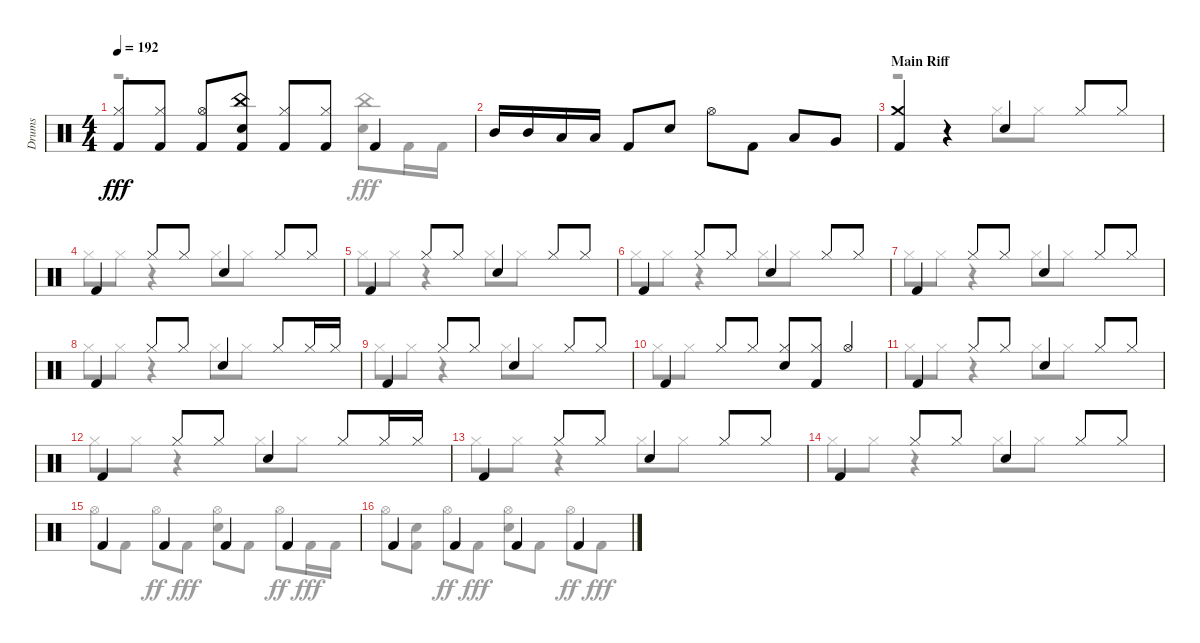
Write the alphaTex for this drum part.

\track ("Drums" "Drums") {instrument percussion}
\staff {score}
\articulation defaults
\voice
\ts (4 4)
\tempo 192
\clef neutral
\ks aminor
("Hi-Hat (closed)" "Kick (hit) 2").8{dy fff} ("Hi-Hat (closed)" "Kick (hit) 2").8 ("Kick (hit) 2" "Hi-Hat (open)").8 ("Snare (hit) 2" "China (hit)" "Kick (hit) 2").8 ("Hi-Hat (closed)" "Kick (hit) 2").8 ("Hi-Hat (closed)" "Kick (hit) 2").8 "Kick (hit) 2".4 |
"Mid Tom (hit)".16 "Mid Tom (hit)".16 "Low Tom (hit)".16 "Low Tom (hit)".16 "Kick (hit) 2".8 "Snare (hit) 2".8 "Hi-Hat (open)".8 "Kick (hit) 2".8 "Low Tom (hit)".8 "Very Low Tom (hit)".8 |
\section ("" "Main Riff")
("Crash medium (hit)" "Kick (hit) 2").4 r.4 "Snare (hit) 2".4 "Hi-Hat (closed)".8 "Hi-Hat (closed)".8 |
"Kick (hit) 2".4 "Hi-Hat (closed)".8 "Hi-Hat (closed)".8 "Snare (hit) 2".4 "Hi-Hat (closed)".8 "Hi-Hat (closed)".8 |
"Kick (hit) 2".4 "Hi-Hat (closed)".8 "Hi-Hat (closed)".8 "Snare (hit) 2".4 "Hi-Hat (closed)".8 "Hi-Hat (closed)".8 |
"Kick (hit) 2".4 "Hi-Hat (closed)".8 "Hi-Hat (closed)".8 "Snare (hit) 2".4 "Hi-Hat (closed)".8 "Hi-Hat (closed)".8 |
"Kick (hit) 2".4 "Hi-Hat (closed)".8 "Hi-Hat (closed)".8 "Snare (hit) 2".4 "Hi-Hat (closed)".8 "Hi-Hat (closed)".8 |
"Kick (hit) 2".4 "Hi-Hat (closed)".8 "Hi-Hat (closed)".8 "Snare (hit) 2".4 "Hi-Hat (closed)".8 "Hi-Hat (closed)".16 "Hi-Hat (closed)".16 |
"Kick (hit) 2".4 "Hi-Hat (closed)".8 "Hi-Hat (closed)".8 "Snare (hit) 2".4 "Hi-Hat (closed)".8 "Hi-Hat (closed)".8 |
"Kick (hit) 2".4 "Hi-Hat (closed)".8 "Hi-Hat (closed)".8 ("Hi-Hat (closed)" "Snare (hit) 2").8 ("Kick (hit) 2" "Hi-Hat (closed)").8 "Hi-Hat (open)".4 |
"Kick (hit) 2".4 "Hi-Hat (closed)".8 "Hi-Hat (closed)".8 "Snare (hit) 2".4 "Hi-Hat (closed)".8 "Hi-Hat (closed)".8 |
"Kick (hit) 2".4 "Hi-Hat (closed)".8 "Hi-Hat (closed)".8 "Snare (hit) 2".4 "Hi-Hat (closed)".8 "Hi-Hat (closed)".16 "Hi-Hat (closed)".16 |
"Kick (hit) 2".4 "Hi-Hat (closed)".8 "Hi-Hat (closed)".8 "Snare (hit) 2".4 "Hi-Hat (closed)".8 "Hi-Hat (closed)".8 |
"Kick (hit) 2".4 "Hi-Hat (closed)".8 "Hi-Hat (closed)".8 "Snare (hit) 2".4 "Hi-Hat (closed)".8 "Hi-Hat (closed)".8 |
"Kick (hit) 2".4 "Kick (hit) 2".4 "Kick (hit) 2".4 "Kick (hit) 2".4 |
"Kick (hit) 2".4 "Kick (hit) 2".4 "Kick (hit) 2".4 "Kick (hit) 2".4
\voice
\clef neutral
\ottava regular
\simile none
\ks aminor
r.2{d dy fff} ("Snare (hit) 2" "China (hit)").8 "Kick (hit) 2".16 "Kick (hit) 2".16 |
|
r.2 "Hi-Hat (closed)".8 "Hi-Hat (closed)".8 |
"Hi-Hat (closed)".8 "Hi-Hat (closed)".8 r.4 "Hi-Hat (closed)".8 "Hi-Hat (closed)".8 |
"Hi-Hat (closed)".8 "Hi-Hat (closed)".8 r.4 "Hi-Hat (closed)".8 "Hi-Hat (closed)".8 |
"Hi-Hat (closed)".8 "Hi-Hat (closed)".8 r.4 "Hi-Hat (closed)".8 "Hi-Hat (closed)".8 |
"Hi-Hat (closed)".8 "Hi-Hat (closed)".8 r.4 "Hi-Hat (closed)".8 "Hi-Hat (closed)".8 |
"Hi-Hat (closed)".8 "Hi-Hat (closed)".8 r.4 "Hi-Hat (closed)".8 "Hi-Hat (closed)".8 |
"Hi-Hat (closed)".8 "Hi-Hat (closed)".8 r.4 "Hi-Hat (closed)".8 "Hi-Hat (closed)".8 |
"Hi-Hat (closed)".8 "Hi-Hat (closed)".8 |
"Hi-Hat (closed)".8 "Hi-Hat (closed)".8 r.4 "Hi-Hat (closed)".8 "Hi-Hat (closed)".8 |
"Hi-Hat (closed)".8 "Hi-Hat (closed)".8 r.4 "Hi-Hat (closed)".8 "Hi-Hat (closed)".8 |
"Hi-Hat (closed)".8 "Hi-Hat (closed)".8 r.4 "Hi-Hat (closed)".8 "Hi-Hat (closed)".8 |
"Hi-Hat (closed)".8 "Hi-Hat (closed)".8 r.4 "Hi-Hat (closed)".8 "Hi-Hat (closed)".8 |
"Hi-Hat (open)".8 "Kick (hit) 2".8 "Hi-Hat (open)".8{dy ff} "Kick (hit) 2".8{dy fff} ("Hi-Hat (open)" "Snare (hit) 2").8 "Kick (hit) 2".8 "Hi-Hat (open)".8{dy ff} "Kick (hit) 2".16{dy fff} "Kick (hit) 2".16 |
"Hi-Hat (open)".8 ("Kick (hit) 2" "Snare (hit) 2").8 "Hi-Hat (open)".8{dy ff} "Kick (hit) 2".8{dy fff} ("Snare (hit) 2" "Hi-Hat (open)").8 "Kick (hit) 2".8 "Hi-Hat (open)".8{dy ff} "Kick (hit) 2".8{dy fff}
